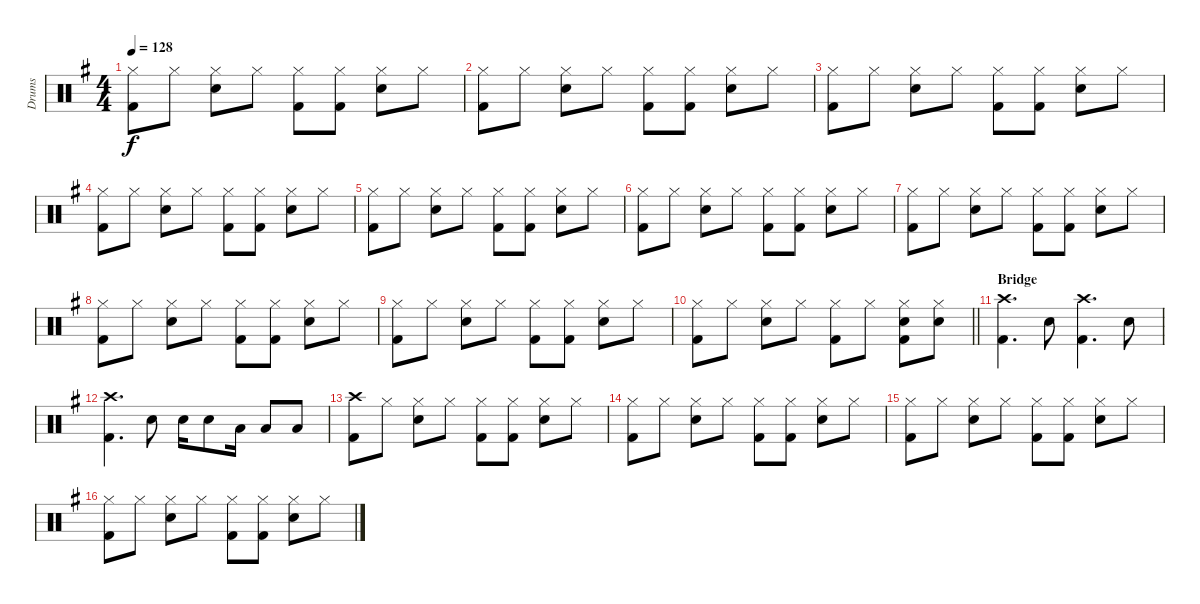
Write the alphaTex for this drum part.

\track ("Drums" "Drums") {instrument percussion}
\staff {score}
\articulation defaults
\ts (4 4)
\tempo 128
\clef neutral
\ks g
("Hi-Hat (closed)" "Kick (hit) 2").8{dy f} "Hi-Hat (closed)".8 ("Hi-Hat (closed)" "Snare (hit) 2").8 "Hi-Hat (closed)".8 ("Hi-Hat (closed)" "Kick (hit) 2").8 ("Hi-Hat (closed)" "Kick (hit) 2").8 ("Hi-Hat (closed)" "Snare (hit) 2").8 "Hi-Hat (closed)".8 |
("Hi-Hat (closed)" "Kick (hit) 2").8 "Hi-Hat (closed)".8 ("Hi-Hat (closed)" "Snare (hit) 2").8 "Hi-Hat (closed)".8 ("Hi-Hat (closed)" "Kick (hit) 2").8 ("Hi-Hat (closed)" "Kick (hit) 2").8 ("Hi-Hat (closed)" "Snare (hit) 2").8 "Hi-Hat (closed)".8 |
("Hi-Hat (closed)" "Kick (hit) 2").8 "Hi-Hat (closed)".8 ("Hi-Hat (closed)" "Snare (hit) 2").8 "Hi-Hat (closed)".8 ("Hi-Hat (closed)" "Kick (hit) 2").8 ("Hi-Hat (closed)" "Kick (hit) 2").8 ("Hi-Hat (closed)" "Snare (hit) 2").8 "Hi-Hat (closed)".8 |
("Hi-Hat (closed)" "Kick (hit) 2").8 "Hi-Hat (closed)".8 ("Hi-Hat (closed)" "Snare (hit) 2").8 "Hi-Hat (closed)".8 ("Hi-Hat (closed)" "Kick (hit) 2").8 ("Hi-Hat (closed)" "Kick (hit) 2").8 ("Hi-Hat (closed)" "Snare (hit) 2").8 "Hi-Hat (closed)".8 |
("Hi-Hat (closed)" "Kick (hit) 2").8 "Hi-Hat (closed)".8 ("Hi-Hat (closed)" "Snare (hit) 2").8 "Hi-Hat (closed)".8 ("Hi-Hat (closed)" "Kick (hit) 2").8 ("Hi-Hat (closed)" "Kick (hit) 2").8 ("Hi-Hat (closed)" "Snare (hit) 2").8 "Hi-Hat (closed)".8 |
("Hi-Hat (closed)" "Kick (hit) 2").8 "Hi-Hat (closed)".8 ("Hi-Hat (closed)" "Snare (hit) 2").8 "Hi-Hat (closed)".8 ("Hi-Hat (closed)" "Kick (hit) 2").8 ("Hi-Hat (closed)" "Kick (hit) 2").8 ("Hi-Hat (closed)" "Snare (hit) 2").8 "Hi-Hat (closed)".8 |
("Hi-Hat (closed)" "Kick (hit) 2").8 "Hi-Hat (closed)".8 ("Hi-Hat (closed)" "Snare (hit) 2").8 "Hi-Hat (closed)".8 ("Hi-Hat (closed)" "Kick (hit) 2").8 ("Hi-Hat (closed)" "Kick (hit) 2").8 ("Hi-Hat (closed)" "Snare (hit) 2").8 "Hi-Hat (closed)".8 |
("Hi-Hat (closed)" "Kick (hit) 2").8 "Hi-Hat (closed)".8 ("Hi-Hat (closed)" "Snare (hit) 2").8 "Hi-Hat (closed)".8 ("Hi-Hat (closed)" "Kick (hit) 2").8 ("Hi-Hat (closed)" "Kick (hit) 2").8 ("Hi-Hat (closed)" "Snare (hit) 2").8 "Hi-Hat (closed)".8 |
("Hi-Hat (closed)" "Kick (hit) 2").8 "Hi-Hat (closed)".8 ("Hi-Hat (closed)" "Snare (hit) 2").8 "Hi-Hat (closed)".8 ("Hi-Hat (closed)" "Kick (hit) 2").8 ("Hi-Hat (closed)" "Kick (hit) 2").8 ("Hi-Hat (closed)" "Snare (hit) 2").8 "Hi-Hat (closed)".8 |
\barLineRight lightlight
("Hi-Hat (closed)" "Kick (hit) 2").8 "Hi-Hat (closed)".8 ("Hi-Hat (closed)" "Snare (hit) 2").8 "Hi-Hat (closed)".8 ("Hi-Hat (closed)" "Kick (hit) 2").8 "Hi-Hat (closed)".8 ("Hi-Hat (closed)" "Snare (hit) 2" "Kick (hit) 2").8 ("Hi-Hat (closed)" "Snare (hit) 2").8 |
\section ("" "Bridge")
("Crash high (hit)" "Kick (hit) 2").4{d} "Snare (hit) 2".8 ("Crash high (hit)" "Kick (hit) 2").4{d} "Snare (hit) 2".8 |
("Crash high (hit)" "Kick (hit) 2").4{d} "Snare (hit) 2".8 "Snare (hit) 2".16 "Snare (hit) 2".8 "Low Tom (hit)".16 "Low Tom (hit)".8 "Low Tom (hit)".8 |
("Crash high (hit)" "Kick (hit) 2").8 "Hi-Hat (closed)".8 ("Hi-Hat (closed)" "Snare (hit) 2").8 "Hi-Hat (closed)".8 ("Hi-Hat (closed)" "Kick (hit) 2").8 ("Hi-Hat (closed)" "Kick (hit) 2").8 ("Hi-Hat (closed)" "Snare (hit) 2").8 "Hi-Hat (closed)".8 |
("Hi-Hat (closed)" "Kick (hit) 2").8 "Hi-Hat (closed)".8 ("Hi-Hat (closed)" "Snare (hit) 2").8 "Hi-Hat (closed)".8 ("Hi-Hat (closed)" "Kick (hit) 2").8 ("Hi-Hat (closed)" "Kick (hit) 2").8 ("Hi-Hat (closed)" "Snare (hit) 2").8 "Hi-Hat (closed)".8 |
("Hi-Hat (closed)" "Kick (hit) 2").8 "Hi-Hat (closed)".8 ("Hi-Hat (closed)" "Snare (hit) 2").8 "Hi-Hat (closed)".8 ("Hi-Hat (closed)" "Kick (hit) 2").8 ("Hi-Hat (closed)" "Kick (hit) 2").8 ("Hi-Hat (closed)" "Snare (hit) 2").8 "Hi-Hat (closed)".8 |
("Hi-Hat (closed)" "Kick (hit) 2").8 "Hi-Hat (closed)".8 ("Hi-Hat (closed)" "Snare (hit) 2").8 "Hi-Hat (closed)".8 ("Hi-Hat (closed)" "Kick (hit) 2").8 ("Hi-Hat (closed)" "Kick (hit) 2").8 ("Hi-Hat (closed)" "Snare (hit) 2").8 "Hi-Hat (closed)".8
